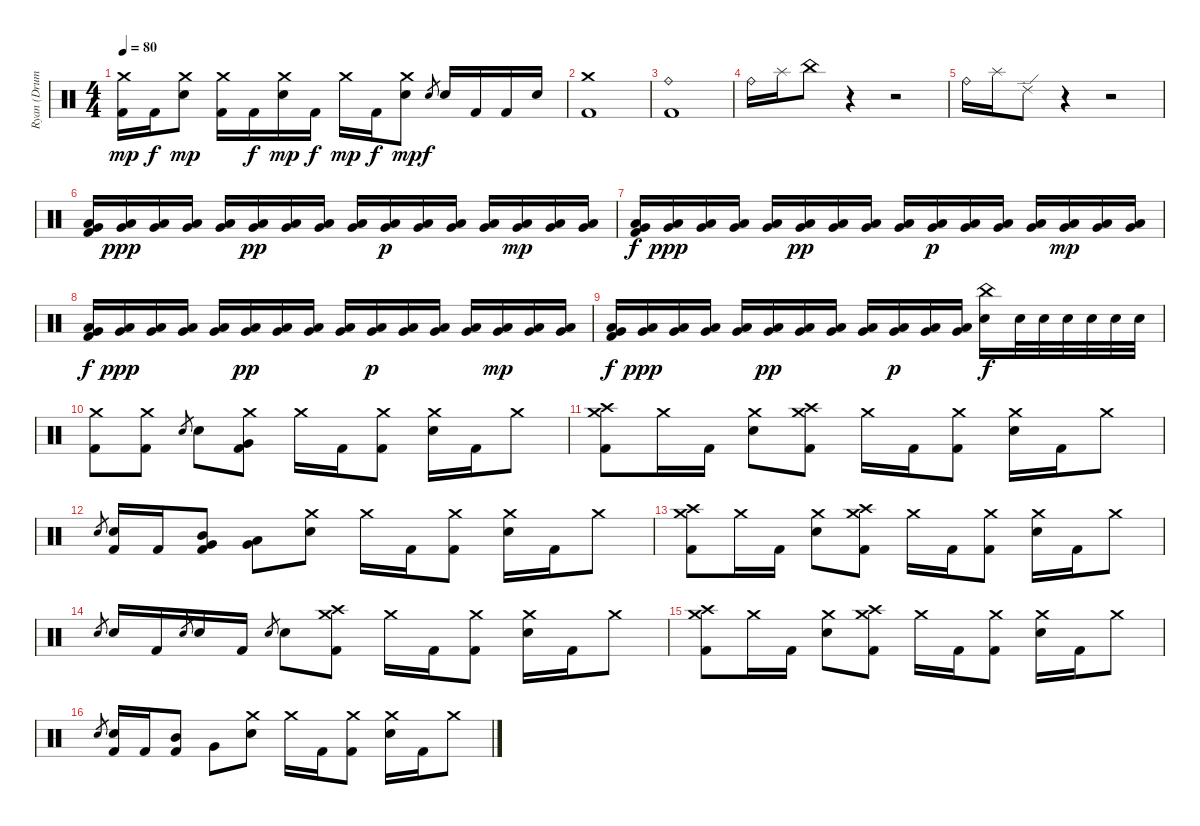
\track ("Ryan (Drums)" "Ryan (Drum") {instrument percussion}
\staff {score}
\articulation defaults
\ts (4 4)
\tempo 80
\clef neutral
\ks c
("Crash medium (hit)" "Kick (hit) 2").16{dy mp} "Kick (hit) 2".16{dy f} ("Crash medium (hit)" "Electric Snare (hit)").8{dy mp} ("Crash medium (hit)" "Kick (hit) 2").16 "Kick (hit) 2".16{dy f} ("Crash medium (hit)" "Electric Snare (hit)").16{dy mp} "Kick (hit) 2".16{dy f} "Crash medium (hit)".16{dy mp} "Kick (hit) 2".16{dy f} ("Crash medium (hit)" "Electric Snare (hit)").8{dy mp} "Electric Snare (hit)".8{gr dy f} "Electric Snare (hit)".16 "Kick (hit) 2".16 "Kick (hit) 2".16 "Electric Snare (hit)".16 |
("Crash medium (hit)" "Kick (hit) 2").1 |
("Ride (bell)" "Kick (hit) 2").1 |
"Ride (bell)".16 "Splash (hit)".16 "China (hit)".8 r.4 r.2 |
"Ride (bell)".16 "Splash (hit)".16 "Ride (edge) 2".8 r.4 r.2 |
("Very Low Tom (hit)" "Low Floor Tom (hit)" "Kick (hit) 2").16 ("Very Low Tom (hit)" "Low Floor Tom (hit)").16{dy ppp} ("Very Low Tom (hit)" "Low Floor Tom (hit)").16 ("Very Low Tom (hit)" "Low Floor Tom (hit)").16 ("Very Low Tom (hit)" "Low Floor Tom (hit)").16 ("Very Low Tom (hit)" "Low Floor Tom (hit)").16{dy pp} ("Very Low Tom (hit)" "Low Floor Tom (hit)").16 ("Very Low Tom (hit)" "Low Floor Tom (hit)").16 ("Very Low Tom (hit)" "Low Floor Tom (hit)").16 ("Very Low Tom (hit)" "Low Floor Tom (hit)").16{dy p} ("Very Low Tom (hit)" "Low Floor Tom (hit)").16 ("Very Low Tom (hit)" "Low Floor Tom (hit)").16 ("Very Low Tom (hit)" "Low Floor Tom (hit)").16 ("Very Low Tom (hit)" "Low Floor Tom (hit)").16{dy mp} ("Very Low Tom (hit)" "Low Floor Tom (hit)").16 ("Very Low Tom (hit)" "Low Floor Tom (hit)").16 |
("Very Low Tom (hit)" "Low Floor Tom (hit)" "Kick (hit) 2").16{dy f} ("Very Low Tom (hit)" "Low Floor Tom (hit)").16{dy ppp} ("Very Low Tom (hit)" "Low Floor Tom (hit)").16 ("Very Low Tom (hit)" "Low Floor Tom (hit)").16 ("Very Low Tom (hit)" "Low Floor Tom (hit)").16 ("Very Low Tom (hit)" "Low Floor Tom (hit)").16{dy pp} ("Very Low Tom (hit)" "Low Floor Tom (hit)").16 ("Very Low Tom (hit)" "Low Floor Tom (hit)").16 ("Very Low Tom (hit)" "Low Floor Tom (hit)").16 ("Very Low Tom (hit)" "Low Floor Tom (hit)").16{dy p} ("Very Low Tom (hit)" "Low Floor Tom (hit)").16 ("Very Low Tom (hit)" "Low Floor Tom (hit)").16 ("Very Low Tom (hit)" "Low Floor Tom (hit)").16 ("Very Low Tom (hit)" "Low Floor Tom (hit)").16{dy mp} ("Very Low Tom (hit)" "Low Floor Tom (hit)").16 ("Very Low Tom (hit)" "Low Floor Tom (hit)").16 |
("Very Low Tom (hit)" "Low Floor Tom (hit)" "Kick (hit) 2").16{dy f} ("Very Low Tom (hit)" "Low Floor Tom (hit)").16{dy ppp} ("Very Low Tom (hit)" "Low Floor Tom (hit)").16 ("Very Low Tom (hit)" "Low Floor Tom (hit)").16 ("Very Low Tom (hit)" "Low Floor Tom (hit)").16 ("Very Low Tom (hit)" "Low Floor Tom (hit)").16{dy pp} ("Very Low Tom (hit)" "Low Floor Tom (hit)").16 ("Very Low Tom (hit)" "Low Floor Tom (hit)").16 ("Very Low Tom (hit)" "Low Floor Tom (hit)").16 ("Very Low Tom (hit)" "Low Floor Tom (hit)").16{dy p} ("Very Low Tom (hit)" "Low Floor Tom (hit)").16 ("Very Low Tom (hit)" "Low Floor Tom (hit)").16 ("Very Low Tom (hit)" "Low Floor Tom (hit)").16 ("Very Low Tom (hit)" "Low Floor Tom (hit)").16{dy mp} ("Very Low Tom (hit)" "Low Floor Tom (hit)").16 ("Very Low Tom (hit)" "Low Floor Tom (hit)").16 |
("Very Low Tom (hit)" "Low Floor Tom (hit)" "Kick (hit) 2").16{dy f} ("Very Low Tom (hit)" "Low Floor Tom (hit)").16{dy ppp} ("Very Low Tom (hit)" "Low Floor Tom (hit)").16 ("Very Low Tom (hit)" "Low Floor Tom (hit)").16 ("Very Low Tom (hit)" "Low Floor Tom (hit)").16 ("Very Low Tom (hit)" "Low Floor Tom (hit)").16{dy pp} ("Very Low Tom (hit)" "Low Floor Tom (hit)").16 ("Very Low Tom (hit)" "Low Floor Tom (hit)").16 ("Very Low Tom (hit)" "Low Floor Tom (hit)").16 ("Very Low Tom (hit)" "Low Floor Tom (hit)").16{dy p} ("Very Low Tom (hit)" "Low Floor Tom (hit)").16 ("Very Low Tom (hit)" "Low Floor Tom (hit)").16 ("China (hit)" "Electric Snare (hit)").16{dy f} "Electric Snare (hit)".32 "Electric Snare (hit)".32 "Electric Snare (hit)".32 "Electric Snare (hit)".32 "Electric Snare (hit)".32 "Electric Snare (hit)".32 |
("Crash medium (hit)" "Kick (hit) 2").8 ("Crash medium (hit)" "Kick (hit) 2").8 "Electric Snare (hit)".8{gr} "Electric Snare (hit)".8 ("Crash medium (hit)" "Very Low Tom (hit)" "Kick (hit) 2").8 "Crash medium (hit)".16 "Kick (hit) 2".16 ("Crash medium (hit)" "Kick (hit) 2").8 ("Crash medium (hit)" "Electric Snare (hit)").16 "Kick (hit) 2".16 "Crash medium (hit)".8 |
("Crash medium (hit)" "Crash high (hit)" "Kick (hit) 2").8 "Crash medium (hit)".16 "Kick (hit) 2".16 ("Crash medium (hit)" "Electric Snare (hit)").8 ("Crash medium (hit)" "Crash high (hit)" "Kick (hit) 2").8 "Crash medium (hit)".16 "Kick (hit) 2".16 ("Crash medium (hit)" "Kick (hit) 2").8 ("Crash medium (hit)" "Electric Snare (hit)").16 "Kick (hit) 2".16 "Crash medium (hit)".8 |
"Electric Snare (hit)".8{gr} ("Electric Snare (hit)" "Kick (hit) 2").16 "Kick (hit) 2".16 ("Mid Tom (hit)" "Very Low Tom (hit)" "Kick (hit) 2").8 ("Very Low Tom (hit)" "Low Floor Tom (hit)").8 ("Crash medium (hit)" "Electric Snare (hit)").8 "Crash medium (hit)".16 "Kick (hit) 2".16 ("Crash medium (hit)" "Kick (hit) 2").8 ("Crash medium (hit)" "Electric Snare (hit)").16 "Kick (hit) 2".16 "Crash medium (hit)".8 |
("Crash medium (hit)" "Crash high (hit)" "Kick (hit) 2").8 "Crash medium (hit)".16 "Kick (hit) 2".16 ("Crash medium (hit)" "Electric Snare (hit)").8 ("Crash medium (hit)" "Crash high (hit)" "Kick (hit) 2").8 "Crash medium (hit)".16 "Kick (hit) 2".16 ("Crash medium (hit)" "Kick (hit) 2").8 ("Crash medium (hit)" "Electric Snare (hit)").16 "Kick (hit) 2".16 "Crash medium (hit)".8 |
"Electric Snare (hit)".8{gr} "Electric Snare (hit)".16 "Kick (hit) 2".16 "Electric Snare (hit)".8{gr} "Electric Snare (hit)".16 "Kick (hit) 2".16 "Electric Snare (hit)".8{gr} "Electric Snare (hit)".8 ("Crash medium (hit)" "Crash high (hit)" "Kick (hit) 2").8 "Crash medium (hit)".16 "Kick (hit) 2".16 ("Crash medium (hit)" "Kick (hit) 2").8 ("Crash medium (hit)" "Electric Snare (hit)").16 "Kick (hit) 2".16 "Crash medium (hit)".8 |
("Crash medium (hit)" "Crash high (hit)" "Kick (hit) 2").8 "Crash medium (hit)".16 "Kick (hit) 2".16 ("Crash medium (hit)" "Electric Snare (hit)").8 ("Crash medium (hit)" "Crash high (hit)" "Kick (hit) 2").8 "Crash medium (hit)".16 "Kick (hit) 2".16 ("Crash medium (hit)" "Kick (hit) 2").8 ("Crash medium (hit)" "Electric Snare (hit)").16 "Kick (hit) 2".16 "Crash medium (hit)".8 |
"Electric Snare (hit)".8{gr} ("Electric Snare (hit)" "Kick (hit) 2").16 "Kick (hit) 2".16 ("Mid Tom (hit)" "Kick (hit) 2").8 "Very Low Tom (hit)".8 ("Crash medium (hit)" "Electric Snare (hit)").8 "Crash medium (hit)".16 "Kick (hit) 2".16 ("Crash medium (hit)" "Kick (hit) 2").8 ("Crash medium (hit)" "Electric Snare (hit)").16 "Kick (hit) 2".16 "Crash medium (hit)".8
